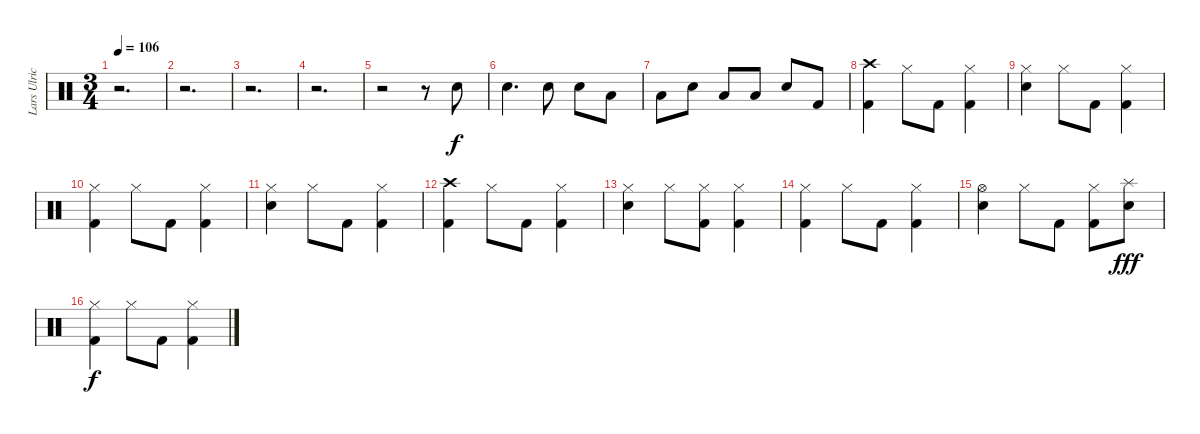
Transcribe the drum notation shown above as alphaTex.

\track ("Lars Ulrich [Drums]" "Lars Ulric") {instrument percussion}
\staff {score}
\articulation defaults
\ts (3 4)
\tempo 106
\clef neutral
\ks c
r.2{d dy f} |
r.2{d} |
r.2{d} |
r.2{d} |
r.2 r.8 "Electric Snare (hit)".8 |
"Electric Snare (hit)".4{d} "Electric Snare (hit)".8 "Electric Snare (hit)".8 "Low Tom (hit)".8 |
"Low Tom (hit)".8 "Electric Snare (hit)".8 "Low Tom (hit)".8 "Low Tom (hit)".8 "Electric Snare (hit)".8 "Kick (hit) 2".8 |
("Crash high (hit)" "Kick (hit) 2").4 "Hi-Hat (closed)".8 "Kick (hit) 2".8 ("Hi-Hat (closed)" "Kick (hit) 2").4 |
("Hi-Hat (closed)" "Electric Snare (hit)").4 "Hi-Hat (closed)".8 "Kick (hit) 2".8 ("Hi-Hat (closed)" "Kick (hit) 2").4 |
("Hi-Hat (closed)" "Kick (hit) 2").4 "Hi-Hat (closed)".8 "Kick (hit) 2".8 ("Hi-Hat (closed)" "Kick (hit) 2").4 |
("Hi-Hat (closed)" "Electric Snare (hit)").4 "Hi-Hat (closed)".8 "Kick (hit) 2".8 ("Hi-Hat (closed)" "Kick (hit) 2").4 |
("Crash high (hit)" "Kick (hit) 2").4 "Hi-Hat (closed)".8 "Kick (hit) 2".8 ("Hi-Hat (closed)" "Kick (hit) 2").4 |
("Hi-Hat (closed)" "Electric Snare (hit)").4 "Hi-Hat (closed)".8 ("Hi-Hat (closed)" "Kick (hit) 2").8 ("Hi-Hat (closed)" "Kick (hit) 2").4 |
("Hi-Hat (closed)" "Kick (hit) 2").4 "Hi-Hat (closed)".8 "Kick (hit) 2".8 ("Hi-Hat (closed)" "Kick (hit) 2").4 |
("Hi-Hat (open)" "Electric Snare (hit)").4 "Hi-Hat (closed)".8 "Kick (hit) 2".8 ("Hi-Hat (closed)" "Kick (hit) 2").8 ("Splash (hit)" "Electric Snare (hit)").8{dy fff} |
("Hi-Hat (closed)" "Kick (hit) 2").4{dy f} "Hi-Hat (closed)".8 "Kick (hit) 2".8 ("Hi-Hat (closed)" "Kick (hit) 2").4
